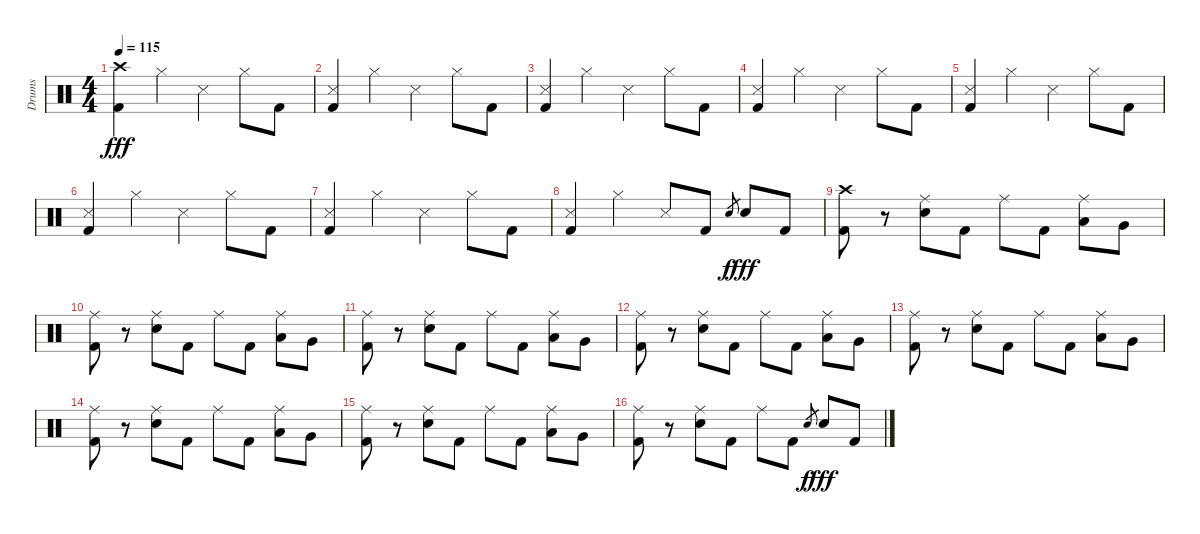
\track ("Drums" "Drums") {instrument percussion}
\staff {score}
\articulation defaults
\ts (4 4)
\tempo 115
\clef neutral
\ks c
("Crash high (hit)" "Kick (hit) 2").4{dy fff} "Hi-Hat (closed)".4 "Snare (side stick) 3".4 "Hi-Hat (closed)".8 "Kick (hit) 2".8 |
("Snare (side stick) 3" "Kick (hit) 2").4 "Hi-Hat (closed)".4 "Snare (side stick) 3".4 "Hi-Hat (closed)".8 "Kick (hit) 2".8 |
("Snare (side stick) 3" "Kick (hit) 2").4 "Hi-Hat (closed)".4 "Snare (side stick) 3".4 "Hi-Hat (closed)".8 "Kick (hit) 2".8 |
("Snare (side stick) 3" "Kick (hit) 2").4 "Hi-Hat (closed)".4 "Snare (side stick) 3".4 "Hi-Hat (closed)".8 "Kick (hit) 2".8 |
("Snare (side stick) 3" "Kick (hit) 2").4 "Hi-Hat (closed)".4 "Snare (side stick) 3".4 "Hi-Hat (closed)".8 "Kick (hit) 2".8 |
("Snare (side stick) 3" "Kick (hit) 2").4 "Hi-Hat (closed)".4 "Snare (side stick) 3".4 "Hi-Hat (closed)".8 "Kick (hit) 2".8 |
("Snare (side stick) 3" "Kick (hit) 2").4 "Hi-Hat (closed)".4 "Snare (side stick) 3".4 "Hi-Hat (closed)".8 "Kick (hit) 2".8 |
("Snare (side stick) 3" "Kick (hit) 2").4 "Hi-Hat (closed)".4 "Snare (side stick) 3".8 "Kick (hit) 2".8 "Electric Snare (hit)".8{gr dy f} "Electric Snare (hit)".8{dy fff} "Kick (hit) 2".8 |
("Crash high (hit)" "Kick (hit) 2").8 r.8 ("Ride (middle)" "Electric Snare (hit)").8 "Kick (hit) 2".8 "Ride (middle)".8 "Kick (hit) 2".8 ("Ride (middle)" "Low Tom (hit)").8 "Very Low Tom (hit)".8 |
("Ride (middle)" "Kick (hit) 2").8 r.8 ("Ride (middle)" "Electric Snare (hit)").8 "Kick (hit) 2".8 "Ride (middle)".8 "Kick (hit) 2".8 ("Ride (middle)" "Low Tom (hit)").8 "Very Low Tom (hit)".8 |
("Ride (middle)" "Kick (hit) 2").8 r.8 ("Ride (middle)" "Electric Snare (hit)").8 "Kick (hit) 2".8 "Ride (middle)".8 "Kick (hit) 2".8 ("Ride (middle)" "Low Tom (hit)").8 "Very Low Tom (hit)".8 |
("Ride (middle)" "Kick (hit) 2").8 r.8 ("Ride (middle)" "Electric Snare (hit)").8 "Kick (hit) 2".8 "Ride (middle)".8 "Kick (hit) 2".8 ("Ride (middle)" "Low Tom (hit)").8 "Very Low Tom (hit)".8 |
("Ride (middle)" "Kick (hit) 2").8 r.8 ("Ride (middle)" "Electric Snare (hit)").8 "Kick (hit) 2".8 "Ride (middle)".8 "Kick (hit) 2".8 ("Ride (middle)" "Low Tom (hit)").8 "Very Low Tom (hit)".8 |
("Ride (middle)" "Kick (hit) 2").8 r.8 ("Ride (middle)" "Electric Snare (hit)").8 "Kick (hit) 2".8 "Ride (middle)".8 "Kick (hit) 2".8 ("Ride (middle)" "Low Tom (hit)").8 "Very Low Tom (hit)".8 |
("Ride (middle)" "Kick (hit) 2").8 r.8 ("Ride (middle)" "Electric Snare (hit)").8 "Kick (hit) 2".8 "Ride (middle)".8 "Kick (hit) 2".8 ("Ride (middle)" "Low Tom (hit)").8 "Very Low Tom (hit)".8 |
("Ride (middle)" "Kick (hit) 2").8 r.8 ("Ride (middle)" "Electric Snare (hit)").8 "Kick (hit) 2".8 "Ride (middle)".8 "Kick (hit) 2".8 "Electric Snare (hit)".8{gr dy f} "Electric Snare (hit)".8{dy fff} "Kick (hit) 2".8
